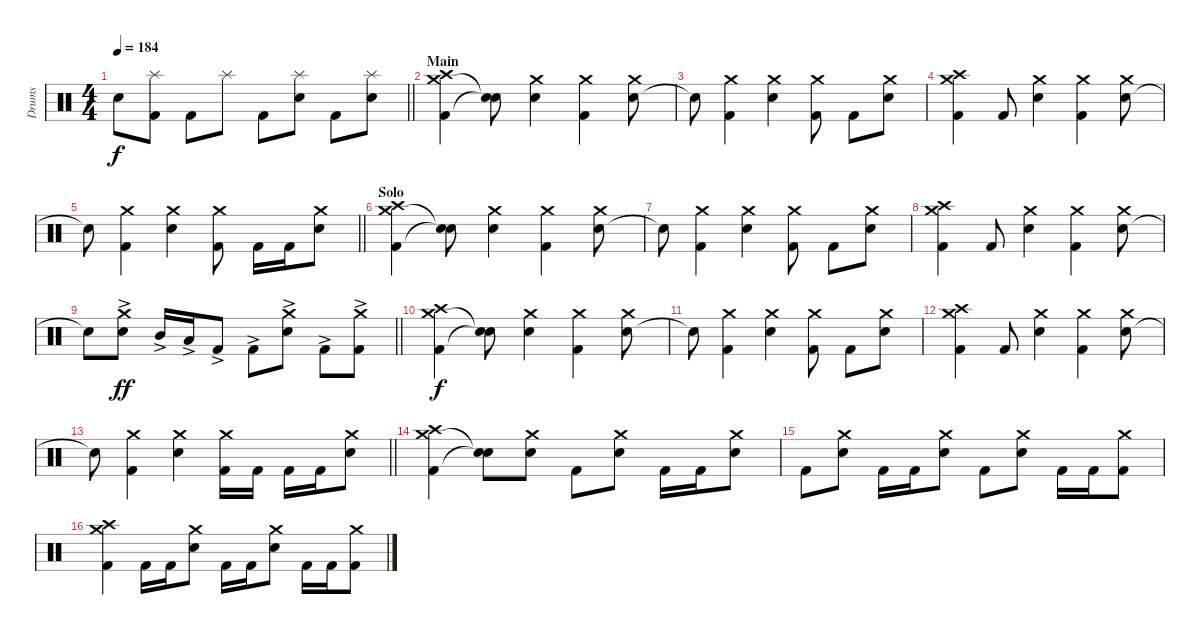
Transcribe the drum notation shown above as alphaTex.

\track ("Drums" "Drums") {instrument percussion}
\staff {score}
\articulation defaults
\ts (4 4)
\tempo 184
\clef neutral
\barLineRight lightlight
\ks c "Snare (hit)"{t}.8{dy f}
("Kick (hit) 2" "Splash (hit)").8 "Kick (hit) 2".8 "Splash (hit)".8 "Kick (hit) 2".8 ("Snare (hit) 2" "Splash (hit)").8 "Kick (hit) 2".8 ("Snare (hit) 2" "Splash (hit)").8 |
\section ("" "Main")
("Kick (hit) 2" "Crash medium (hit)" "Crash high (hit)").4 ("Snare (hit)"{t} "Snare (hit)"{t}).8 ("Snare (hit) 2" "Crash medium (hit)").4 ("Kick (hit) 2" "Crash medium (hit)").4 ("Snare (hit) 2" "Crash medium (hit)").8 |
"Snare (hit)"{t}.8 ("Kick (hit) 2" "Crash medium (hit)").4 ("Snare (hit) 2" "Crash medium (hit)").4 ("Kick (hit) 2" "Crash medium (hit)").8 "Kick (hit) 2".8 ("Snare (hit) 2" "Crash medium (hit)").8 |
("Kick (hit) 2" "Crash medium (hit)" "Crash high (hit)").4 "Kick (hit) 2".8 ("Snare (hit) 2" "Crash medium (hit)").4 ("Kick (hit) 2" "Crash medium (hit)").4 ("Snare (hit) 2" "Crash medium (hit)").8 |
\barLineRight lightlight "Snare (hit)"{t}.8
("Kick (hit) 2" "Crash medium (hit)").4 ("Snare (hit) 2" "Crash medium (hit)").4 ("Kick (hit) 2" "Crash medium (hit)").8 "Kick (hit) 2".16 "Kick (hit) 2".16 ("Snare (hit) 2" "Crash medium (hit)").8 |
\section ("" "Solo")
("Kick (hit) 2" "Crash medium (hit)" "Crash high (hit)").4 ("Snare (hit)"{t} "Snare (hit)"{t}).8 ("Snare (hit) 2" "Crash medium (hit)").4 ("Kick (hit) 2" "Crash medium (hit)").4 ("Snare (hit) 2" "Crash medium (hit)").8 |
"Snare (hit)"{t}.8 ("Kick (hit) 2" "Crash medium (hit)").4 ("Snare (hit) 2" "Crash medium (hit)").4 ("Kick (hit) 2" "Crash medium (hit)").8 "Kick (hit) 2".8 ("Snare (hit) 2" "Crash medium (hit)").8 |
("Kick (hit) 2" "Crash medium (hit)" "Crash high (hit)").4 "Kick (hit) 2".8 ("Snare (hit) 2" "Crash medium (hit)").4 ("Kick (hit) 2" "Crash medium (hit)").4 ("Snare (hit) 2" "Crash medium (hit)").8 |
\barLineRight lightlight "Snare (hit)"{t}.8
("Snare (hit) 2"{ac} "Crash medium (hit)").8{dy ff} "Mid Tom (hit)"{ac}.16 "Low Tom (hit)"{ac}.16 "Kick (hit) 2"{ac}.8 "Kick (hit) 2"{ac}.8 ("Snare (hit) 2"{ac} "Crash medium (hit)").8 "Kick (hit) 2"{ac}.8 ("Kick (hit) 2"{ac} "Crash medium (hit)").8 |
\section ("" "")
("Kick (hit) 2" "Crash medium (hit)" "Crash high (hit)").4{dy f} ("Snare (hit)"{t} "Snare (hit)"{t}).8 ("Snare (hit) 2" "Crash medium (hit)").4 ("Kick (hit) 2" "Crash medium (hit)").4 ("Snare (hit) 2" "Crash medium (hit)").8 |
"Snare (hit)"{t}.8 ("Kick (hit) 2" "Crash medium (hit)").4 ("Snare (hit) 2" "Crash medium (hit)").4 ("Kick (hit) 2" "Crash medium (hit)").8 "Kick (hit) 2".8 ("Snare (hit) 2" "Crash medium (hit)").8 |
("Kick (hit) 2" "Crash medium (hit)" "Crash high (hit)").4 "Kick (hit) 2".8 ("Snare (hit) 2" "Crash medium (hit)").4 ("Kick (hit) 2" "Crash medium (hit)").4 ("Snare (hit) 2" "Crash medium (hit)").8 |
\barLineRight lightlight "Snare (hit)"{t}.8
("Kick (hit) 2" "Crash medium (hit)").4 ("Snare (hit) 2" "Crash medium (hit)").4 ("Kick (hit) 2" "Crash medium (hit)").16 "Kick (hit) 2".16 "Kick (hit) 2".16 "Kick (hit) 2".16 ("Snare (hit) 2" "Crash medium (hit)").8 |
\section ("" "")
("Kick (hit) 2" "Crash medium (hit)" "Crash high (hit)").4 ("Snare (hit)"{t} "Snare (hit)"{t}).8 ("Snare (hit) 2" "Crash medium (hit)").8 "Kick (hit) 2".8 ("Snare (hit) 2" "Crash medium (hit)").8 "Kick (hit) 2".16 "Kick (hit) 2".16 ("Snare (hit) 2" "Crash medium (hit)").8 |
"Kick (hit) 2".8 ("Snare (hit) 2" "Crash medium (hit)").8 "Kick (hit) 2".16 "Kick (hit) 2".16 ("Snare (hit) 2" "Crash medium (hit)").8 "Kick (hit) 2".8 ("Snare (hit) 2" "Crash medium (hit)").8 "Kick (hit) 2".16 "Kick (hit) 2".16 ("Kick (hit) 2" "Crash medium (hit)").8 |
("Kick (hit) 2" "Crash medium (hit)" "Crash high (hit)").4 "Kick (hit) 2".16 "Kick (hit) 2".16 ("Snare (hit) 2" "Crash medium (hit)").8 "Kick (hit) 2".16 "Kick (hit) 2".16 ("Snare (hit) 2" "Crash medium (hit)").8 "Kick (hit) 2".16 "Kick (hit) 2".16 ("Kick (hit) 2" "Crash medium (hit)").8
